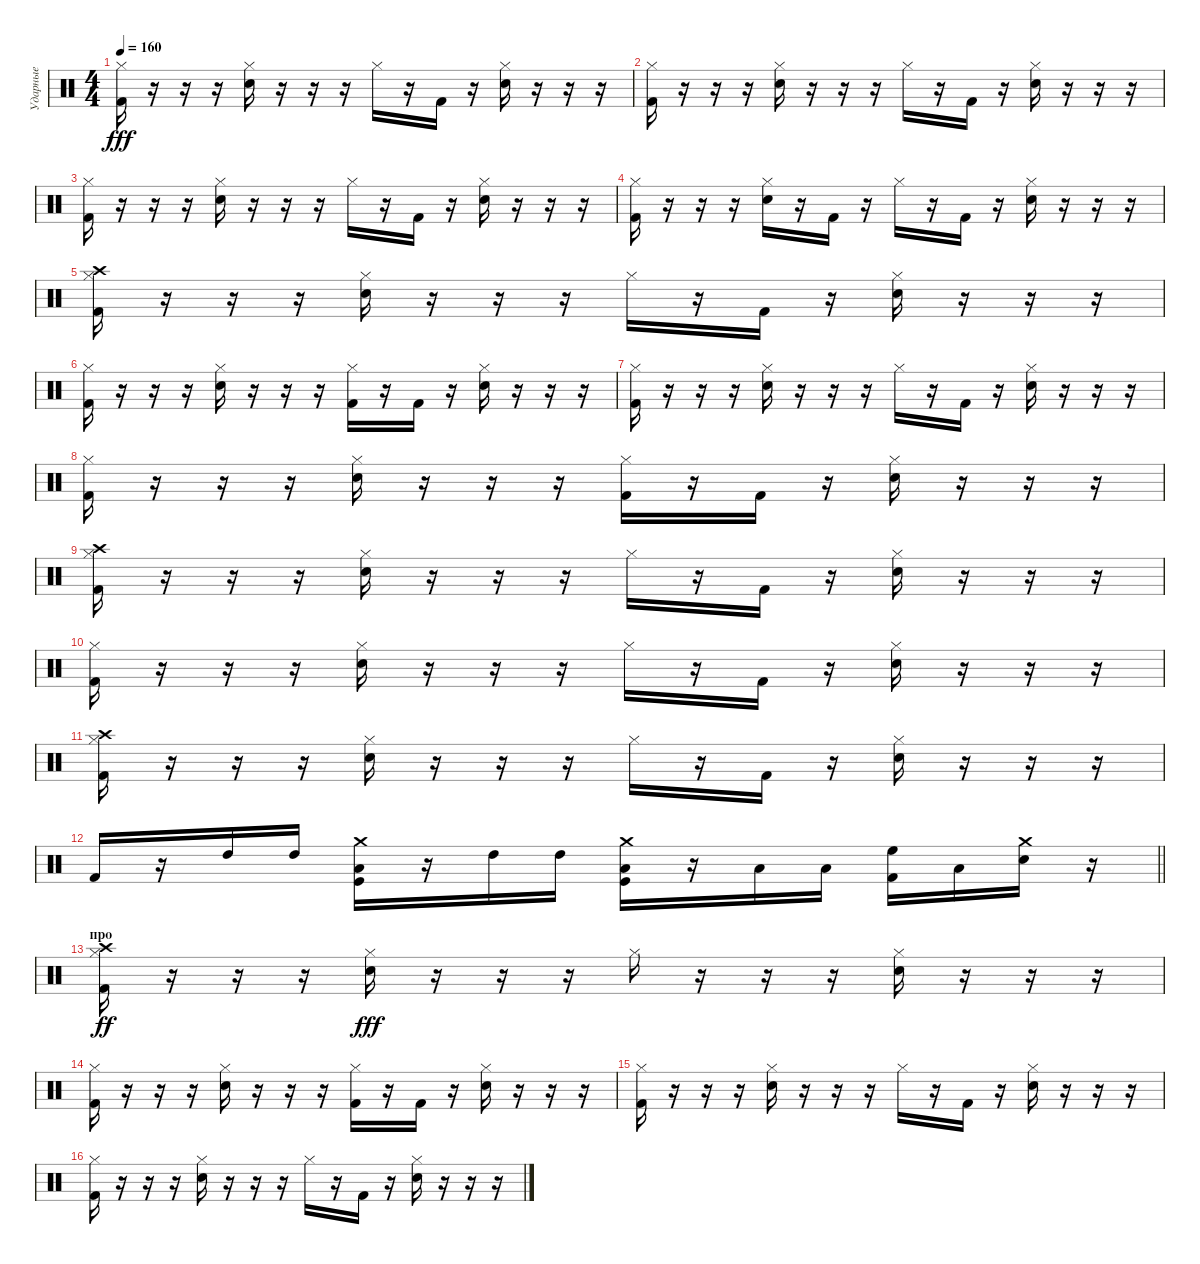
\track ("Ударные" "Ударные") {instrument percussion}
\staff {score}
\articulation defaults
\ts (4 4)
\tempo 160
\clef neutral
\ks c
("Kick (hit) 2" "Hi-Hat (closed)").16{dy fff} r.16 r.16 r.16 ("Snare (hit) 2" "Hi-Hat (closed)").16 r.16 r.16 r.16 "Hi-Hat (closed)".16 r.16 "Kick (hit) 2".16 r.16 ("Snare (hit) 2" "Hi-Hat (closed)").16 r.16 r.16 r.16 |
("Kick (hit) 2" "Hi-Hat (closed)").16 r.16 r.16 r.16 ("Snare (hit) 2" "Hi-Hat (closed)").16 r.16 r.16 r.16 "Hi-Hat (closed)".16 r.16 "Kick (hit) 2".16 r.16 ("Snare (hit) 2" "Hi-Hat (closed)").16 r.16 r.16 r.16 |
("Kick (hit) 2" "Hi-Hat (closed)").16 r.16 r.16 r.16 ("Snare (hit) 2" "Hi-Hat (closed)").16 r.16 r.16 r.16 "Hi-Hat (closed)".16 r.16 "Kick (hit) 2".16 r.16 ("Snare (hit) 2" "Hi-Hat (closed)").16 r.16 r.16 r.16 |
("Kick (hit) 2" "Hi-Hat (closed)").16 r.16 r.16 r.16 ("Snare (hit) 2" "Hi-Hat (closed)").16 r.16 "Kick (hit) 2".16 r.16 "Hi-Hat (closed)".16 r.16 "Kick (hit) 2".16 r.16 ("Snare (hit) 2" "Hi-Hat (closed)").16 r.16 r.16 r.16 |
("Kick (hit) 2" "Hi-Hat (closed)" "Crash high (hit)").16 r.16 r.16 r.16 ("Snare (hit) 2" "Hi-Hat (closed)").16 r.16 r.16 r.16 "Hi-Hat (closed)".16 r.16 "Kick (hit) 2".16 r.16 ("Snare (hit) 2" "Hi-Hat (closed)").16 r.16 r.16 r.16 |
("Kick (hit) 2" "Hi-Hat (closed)").16 r.16 r.16 r.16 ("Snare (hit) 2" "Hi-Hat (closed)").16 r.16 r.16 r.16 ("Kick (hit) 2" "Hi-Hat (closed)").16 r.16 "Kick (hit) 2".16 r.16 ("Snare (hit) 2" "Hi-Hat (closed)").16 r.16 r.16 r.16 |
("Kick (hit) 2" "Hi-Hat (closed)").16 r.16 r.16 r.16 ("Snare (hit) 2" "Hi-Hat (closed)").16 r.16 r.16 r.16 "Hi-Hat (closed)".16 r.16 "Kick (hit) 2".16 r.16 ("Snare (hit) 2" "Hi-Hat (closed)").16 r.16 r.16 r.16 |
("Kick (hit) 2" "Hi-Hat (closed)").16 r.16 r.16 r.16 ("Snare (hit) 2" "Hi-Hat (closed)").16 r.16 r.16 r.16 ("Kick (hit) 2" "Hi-Hat (closed)").16 r.16 "Kick (hit) 2".16 r.16 ("Snare (hit) 2" "Hi-Hat (closed)").16 r.16 r.16 r.16 |
("Kick (hit) 2" "Hi-Hat (closed)" "Crash high (hit)").16 r.16 r.16 r.16 ("Snare (hit) 2" "Hi-Hat (closed)").16 r.16 r.16 r.16 "Hi-Hat (closed)".16 r.16 "Kick (hit) 2".16 r.16 ("Snare (hit) 2" "Hi-Hat (closed)").16 r.16 r.16 r.16 |
("Kick (hit) 2" "Hi-Hat (closed)").16 r.16 r.16 r.16 ("Snare (hit) 2" "Hi-Hat (closed)").16 r.16 r.16 r.16 "Hi-Hat (closed)".16 r.16 "Kick (hit) 2".16 r.16 ("Snare (hit) 2" "Hi-Hat (closed)").16 r.16 r.16 r.16 |
("Kick (hit) 2" "Hi-Hat (closed)" "Crash high (hit)").16 r.16 r.16 r.16 ("Snare (hit) 2" "Hi-Hat (closed)").16 r.16 r.16 r.16 "Hi-Hat (closed)".16 r.16 "Kick (hit) 2".16 r.16 ("Snare (hit) 2" "Hi-Hat (closed)").16 r.16 r.16 r.16 |
\barLineRight lightlight "Kick (hit) 2".16
r.16 "High Tom (hit)".16 "High Tom (hit)".16 ("Kick (hit)" "Low Tom (hit)" "Crash medium (hit)").16 r.16 "High Tom (hit)".16 "High Tom (hit)".16 ("Kick (hit)" "Low Tom (hit)" "Crash medium (hit)").16 r.16 "Low Tom (hit)".16 "Low Tom (hit)".16 ("Kick (hit) 2" "High Floor Tom (hit)").16 "Low Tom (hit)".16 ("Snare (hit) 2" "Crash medium (hit)").16 r.16 |
\section ("" "про")
("Kick (hit) 2" "Hi-Hat (closed)" "Crash high (hit)").16{dy ff} r.16 r.16 r.16 ("Snare (hit) 2" "Hi-Hat (closed)").16{dy fff} r.16 r.16 r.16 "Hi-Hat (closed)".16 r.16 r.16 r.16 ("Snare (hit) 2" "Hi-Hat (closed)").16 r.16 r.16 r.16 |
("Kick (hit) 2" "Hi-Hat (closed)").16 r.16 r.16 r.16 ("Snare (hit) 2" "Hi-Hat (closed)").16 r.16 r.16 r.16 ("Kick (hit) 2" "Hi-Hat (closed)").16 r.16 "Kick (hit) 2".16 r.16 ("Snare (hit) 2" "Hi-Hat (closed)").16 r.16 r.16 r.16 |
("Kick (hit) 2" "Hi-Hat (closed)").16 r.16 r.16 r.16 ("Snare (hit) 2" "Hi-Hat (closed)").16 r.16 r.16 r.16 "Hi-Hat (closed)".16 r.16 "Kick (hit) 2".16 r.16 ("Snare (hit) 2" "Hi-Hat (closed)").16 r.16 r.16 r.16 |
("Kick (hit) 2" "Hi-Hat (closed)").16 r.16 r.16 r.16 ("Snare (hit) 2" "Hi-Hat (closed)").16 r.16 r.16 r.16 "Hi-Hat (closed)".16 r.16 "Kick (hit) 2".16 r.16 ("Snare (hit) 2" "Hi-Hat (closed)").16 r.16 r.16 r.16
